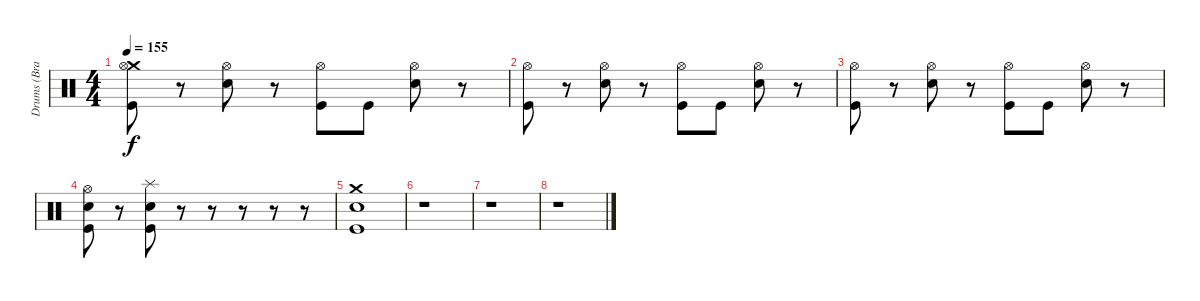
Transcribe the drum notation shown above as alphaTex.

\track ("Drums (Bradie Webb)" "Drums (Bra") {instrument percussion}
\staff {score}
\articulation defaults
\ts (4 4)
\tempo 155
\clef neutral
\ks c
("Crash medium (hit)" "Hi-Hat (open)" "Kick (hit)").8{dy f} r.8 ("Hi-Hat (open)" "Snare (hit) 2").8 r.8 ("Hi-Hat (open)" "Kick (hit)").8 "Kick (hit)".8 ("Hi-Hat (open)" "Snare (hit) 2").8 r.8 |
("Hi-Hat (open)" "Kick (hit)").8 r.8 ("Hi-Hat (open)" "Snare (hit) 2").8 r.8 ("Hi-Hat (open)" "Kick (hit)").8 "Kick (hit)".8 ("Hi-Hat (open)" "Snare (hit) 2").8 r.8 |
("Hi-Hat (open)" "Kick (hit)").8 r.8 ("Hi-Hat (open)" "Snare (hit) 2").8 r.8 ("Hi-Hat (open)" "Kick (hit)").8 "Kick (hit)".8 ("Hi-Hat (open)" "Snare (hit) 2").8 r.8 |
("Hi-Hat (open)" "Snare (hit) 2" "Kick (hit)").8 r.8 ("Splash (hit)" "Snare (hit) 2" "Kick (hit)").8 r.8 r.8 r.8 r.8 r.8 |
("Crash medium (hit)" "Snare (hit) 2" "Kick (hit)").1 |
r.1 |
r.1 |
r.1
